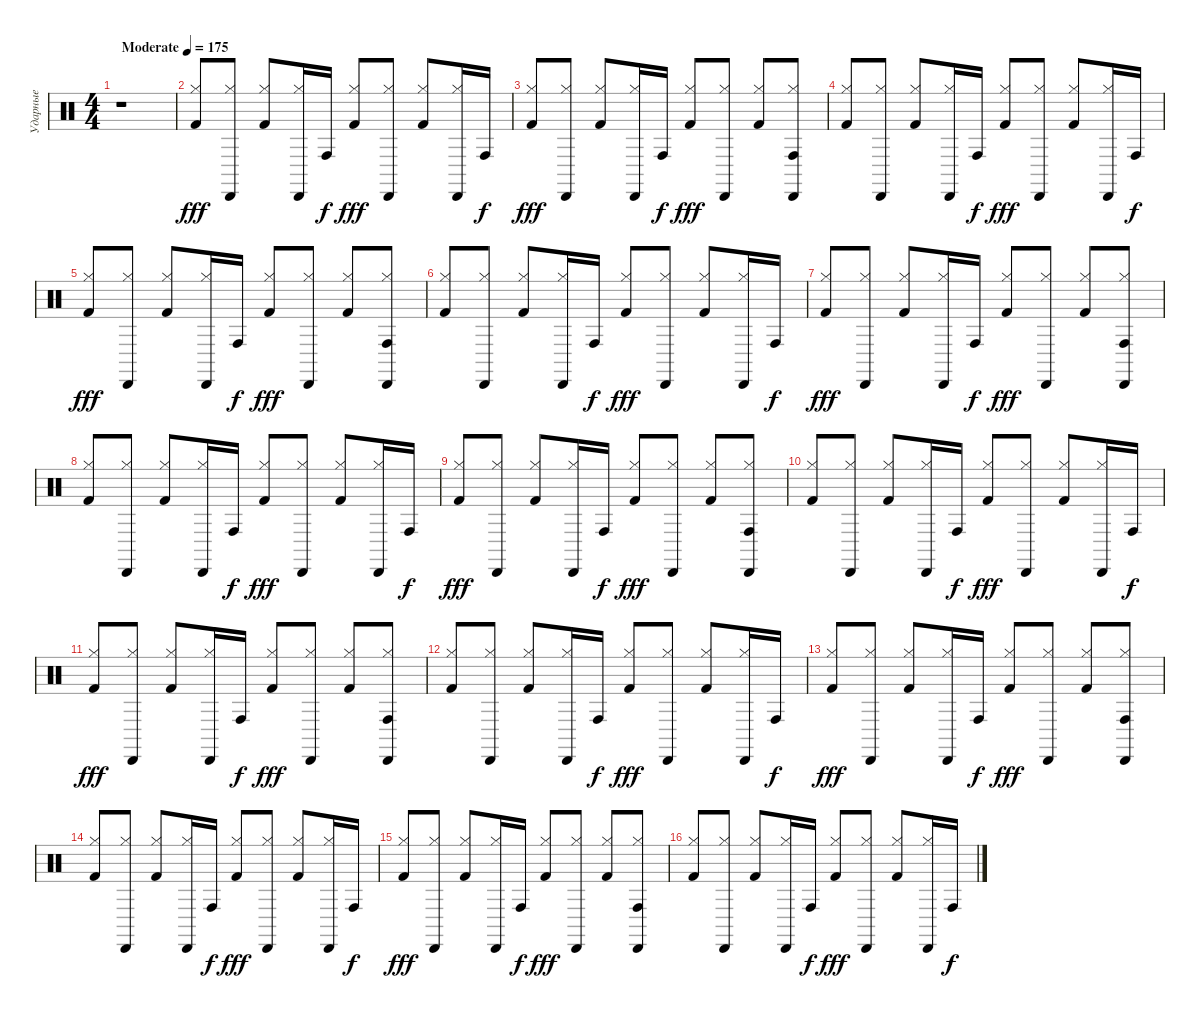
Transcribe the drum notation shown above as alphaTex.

\track ("Ударные" "Ударные") {instrument percussion}
\staff {score}
\articulation defaults
\ts (4 4)
\tempo (175 "Moderate")
\clef neutral
\ks c
r.1{dy fff} |
("Kick (hit) 2" "Hi-Hat (closed)").8 ("Hi-Hat (closed)" "Cabasa (hit)").8 ("Kick (hit) 2" "Hi-Hat (closed)").8 ("Cabasa (hit)" "Hi-Hat (closed)").16 "Conga high (hit)".16{dy f} ("Kick (hit) 2" "Hi-Hat (closed)").8{dy fff} ("Cabasa (hit)" "Hi-Hat (closed)").8 ("Hi-Hat (closed)" "Kick (hit) 2").8 ("Hi-Hat (closed)" "Cabasa (hit)").16 "Conga high (hit)".16{dy f} |
("Kick (hit) 2" "Hi-Hat (closed)").8{dy fff} ("Cabasa (hit)" "Hi-Hat (closed)").8 ("Hi-Hat (closed)" "Kick (hit) 2").8 ("Cabasa (hit)" "Hi-Hat (closed)").16 "Conga high (hit)".16{dy f} ("Hi-Hat (closed)" "Kick (hit) 2").8{dy fff} ("Hi-Hat (closed)" "Cabasa (hit)").8 ("Kick (hit) 2" "Hi-Hat (closed)").8 ("Hi-Hat (closed)" "Cabasa (hit)" "Conga high (hit)").8 |
("Kick (hit) 2" "Hi-Hat (closed)").8 ("Hi-Hat (closed)" "Cabasa (hit)").8 ("Kick (hit) 2" "Hi-Hat (closed)").8 ("Cabasa (hit)" "Hi-Hat (closed)").16 "Conga high (hit)".16{dy f} ("Kick (hit) 2" "Hi-Hat (closed)").8{dy fff} ("Cabasa (hit)" "Hi-Hat (closed)").8 ("Hi-Hat (closed)" "Kick (hit) 2").8 ("Hi-Hat (closed)" "Cabasa (hit)").16 "Conga high (hit)".16{dy f} |
("Kick (hit) 2" "Hi-Hat (closed)").8{dy fff} ("Cabasa (hit)" "Hi-Hat (closed)").8 ("Hi-Hat (closed)" "Kick (hit) 2").8 ("Cabasa (hit)" "Hi-Hat (closed)").16 "Conga high (hit)".16{dy f} ("Hi-Hat (closed)" "Kick (hit) 2").8{dy fff} ("Hi-Hat (closed)" "Cabasa (hit)").8 ("Kick (hit) 2" "Hi-Hat (closed)").8 ("Hi-Hat (closed)" "Cabasa (hit)" "Conga high (hit)").8 |
("Kick (hit) 2" "Hi-Hat (closed)").8 ("Hi-Hat (closed)" "Cabasa (hit)").8 ("Kick (hit) 2" "Hi-Hat (closed)").8 ("Cabasa (hit)" "Hi-Hat (closed)").16 "Conga high (hit)".16{dy f} ("Kick (hit) 2" "Hi-Hat (closed)").8{dy fff} ("Cabasa (hit)" "Hi-Hat (closed)").8 ("Hi-Hat (closed)" "Kick (hit) 2").8 ("Hi-Hat (closed)" "Cabasa (hit)").16 "Conga high (hit)".16{dy f} |
("Kick (hit) 2" "Hi-Hat (closed)").8{dy fff} ("Cabasa (hit)" "Hi-Hat (closed)").8 ("Hi-Hat (closed)" "Kick (hit) 2").8 ("Cabasa (hit)" "Hi-Hat (closed)").16 "Conga high (hit)".16{dy f} ("Hi-Hat (closed)" "Kick (hit) 2").8{dy fff} ("Hi-Hat (closed)" "Cabasa (hit)").8 ("Kick (hit) 2" "Hi-Hat (closed)").8 ("Hi-Hat (closed)" "Cabasa (hit)" "Conga high (hit)").8 |
("Kick (hit) 2" "Hi-Hat (closed)").8 ("Hi-Hat (closed)" "Cabasa (hit)").8 ("Kick (hit) 2" "Hi-Hat (closed)").8 ("Cabasa (hit)" "Hi-Hat (closed)").16 "Conga high (hit)".16{dy f} ("Kick (hit) 2" "Hi-Hat (closed)").8{dy fff} ("Cabasa (hit)" "Hi-Hat (closed)").8 ("Hi-Hat (closed)" "Kick (hit) 2").8 ("Hi-Hat (closed)" "Cabasa (hit)").16 "Conga high (hit)".16{dy f} |
("Kick (hit) 2" "Hi-Hat (closed)").8{dy fff} ("Cabasa (hit)" "Hi-Hat (closed)").8 ("Hi-Hat (closed)" "Kick (hit) 2").8 ("Cabasa (hit)" "Hi-Hat (closed)").16 "Conga high (hit)".16{dy f} ("Hi-Hat (closed)" "Kick (hit) 2").8{dy fff} ("Hi-Hat (closed)" "Cabasa (hit)").8 ("Kick (hit) 2" "Hi-Hat (closed)").8 ("Hi-Hat (closed)" "Cabasa (hit)" "Conga high (hit)").8 |
("Kick (hit) 2" "Hi-Hat (closed)").8 ("Hi-Hat (closed)" "Cabasa (hit)").8 ("Kick (hit) 2" "Hi-Hat (closed)").8 ("Cabasa (hit)" "Hi-Hat (closed)").16 "Conga high (hit)".16{dy f} ("Kick (hit) 2" "Hi-Hat (closed)").8{dy fff} ("Cabasa (hit)" "Hi-Hat (closed)").8 ("Hi-Hat (closed)" "Kick (hit) 2").8 ("Hi-Hat (closed)" "Cabasa (hit)").16 "Conga high (hit)".16{dy f} |
("Kick (hit) 2" "Hi-Hat (closed)").8{dy fff} ("Cabasa (hit)" "Hi-Hat (closed)").8 ("Hi-Hat (closed)" "Kick (hit) 2").8 ("Cabasa (hit)" "Hi-Hat (closed)").16 "Conga high (hit)".16{dy f} ("Hi-Hat (closed)" "Kick (hit) 2").8{dy fff} ("Hi-Hat (closed)" "Cabasa (hit)").8 ("Kick (hit) 2" "Hi-Hat (closed)").8 ("Hi-Hat (closed)" "Cabasa (hit)" "Conga high (hit)").8 |
("Kick (hit) 2" "Hi-Hat (closed)").8 ("Hi-Hat (closed)" "Cabasa (hit)").8 ("Kick (hit) 2" "Hi-Hat (closed)").8 ("Cabasa (hit)" "Hi-Hat (closed)").16 "Conga high (hit)".16{dy f} ("Kick (hit) 2" "Hi-Hat (closed)").8{dy fff} ("Cabasa (hit)" "Hi-Hat (closed)").8 ("Hi-Hat (closed)" "Kick (hit) 2").8 ("Hi-Hat (closed)" "Cabasa (hit)").16 "Conga high (hit)".16{dy f} |
("Kick (hit) 2" "Hi-Hat (closed)").8{dy fff} ("Cabasa (hit)" "Hi-Hat (closed)").8 ("Hi-Hat (closed)" "Kick (hit) 2").8 ("Cabasa (hit)" "Hi-Hat (closed)").16 "Conga high (hit)".16{dy f} ("Hi-Hat (closed)" "Kick (hit) 2").8{dy fff} ("Hi-Hat (closed)" "Cabasa (hit)").8 ("Kick (hit) 2" "Hi-Hat (closed)").8 ("Hi-Hat (closed)" "Cabasa (hit)" "Conga high (hit)").8 |
("Kick (hit) 2" "Hi-Hat (closed)").8 ("Hi-Hat (closed)" "Cabasa (hit)").8 ("Kick (hit) 2" "Hi-Hat (closed)").8 ("Cabasa (hit)" "Hi-Hat (closed)").16 "Conga high (hit)".16{dy f} ("Kick (hit) 2" "Hi-Hat (closed)").8{dy fff} ("Cabasa (hit)" "Hi-Hat (closed)").8 ("Hi-Hat (closed)" "Kick (hit) 2").8 ("Hi-Hat (closed)" "Cabasa (hit)").16 "Conga high (hit)".16{dy f} |
("Kick (hit) 2" "Hi-Hat (closed)").8{dy fff} ("Cabasa (hit)" "Hi-Hat (closed)").8 ("Hi-Hat (closed)" "Kick (hit) 2").8 ("Cabasa (hit)" "Hi-Hat (closed)").16 "Conga high (hit)".16{dy f} ("Hi-Hat (closed)" "Kick (hit) 2").8{dy fff} ("Hi-Hat (closed)" "Cabasa (hit)").8 ("Kick (hit) 2" "Hi-Hat (closed)").8 ("Hi-Hat (closed)" "Cabasa (hit)" "Conga high (hit)").8 |
("Kick (hit) 2" "Hi-Hat (closed)").8 ("Hi-Hat (closed)" "Cabasa (hit)").8 ("Kick (hit) 2" "Hi-Hat (closed)").8 ("Cabasa (hit)" "Hi-Hat (closed)").16 "Conga high (hit)".16{dy f} ("Kick (hit) 2" "Hi-Hat (closed)").8{dy fff} ("Cabasa (hit)" "Hi-Hat (closed)").8 ("Hi-Hat (closed)" "Kick (hit) 2").8 ("Hi-Hat (closed)" "Cabasa (hit)").16 "Conga high (hit)".16{dy f}
